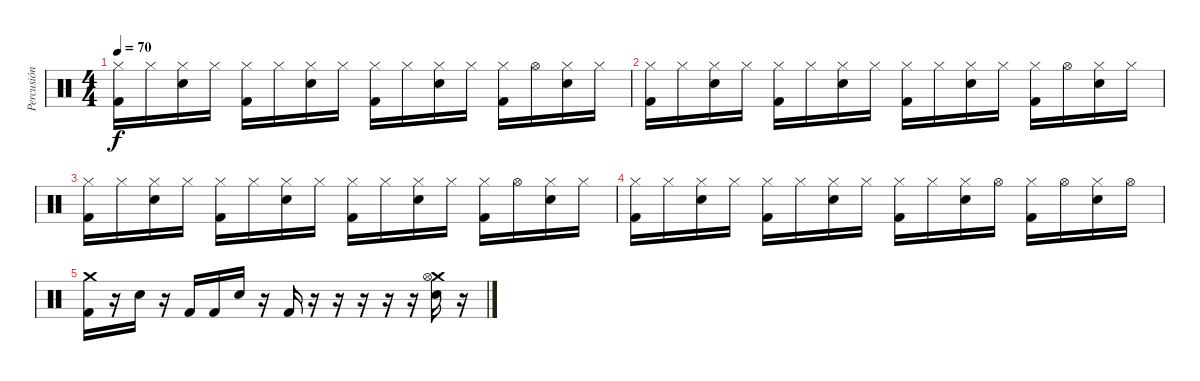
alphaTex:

\track ("Percusión" "Percusión") {instrument percussion}
\staff {score}
\articulation defaults
\ts (4 4)
\tempo 70
\clef neutral
\ks c
("Kick (hit) 2" "Hi-Hat (closed)").16{dy f} "Hi-Hat (closed)".16 ("Snare (hit) 2" "Hi-Hat (closed)").16 "Hi-Hat (closed)".16 ("Kick (hit) 2" "Hi-Hat (closed)").16 "Hi-Hat (closed)".16 ("Snare (hit) 2" "Hi-Hat (closed)").16 "Hi-Hat (closed)".16 ("Kick (hit) 2" "Hi-Hat (closed)").16 "Hi-Hat (closed)".16 ("Snare (hit) 2" "Hi-Hat (closed)").16 "Hi-Hat (closed)".16 ("Kick (hit) 2" "Hi-Hat (closed)").16 "Hi-Hat (open)".16 ("Snare (hit) 2" "Hi-Hat (closed)").16 "Hi-Hat (closed)".16 |
("Kick (hit) 2" "Hi-Hat (closed)").16 "Hi-Hat (closed)".16 ("Snare (hit) 2" "Hi-Hat (closed)").16 "Hi-Hat (closed)".16 ("Kick (hit) 2" "Hi-Hat (closed)").16 "Hi-Hat (closed)".16 ("Snare (hit) 2" "Hi-Hat (closed)").16 "Hi-Hat (closed)".16 ("Kick (hit) 2" "Hi-Hat (closed)").16 "Hi-Hat (closed)".16 ("Snare (hit) 2" "Hi-Hat (closed)").16 "Hi-Hat (closed)".16 ("Kick (hit) 2" "Hi-Hat (closed)").16 "Hi-Hat (open)".16 ("Snare (hit) 2" "Hi-Hat (closed)").16 "Hi-Hat (closed)".16 |
("Kick (hit) 2" "Hi-Hat (closed)").16 "Hi-Hat (closed)".16 ("Snare (hit) 2" "Hi-Hat (closed)").16 "Hi-Hat (closed)".16 ("Kick (hit) 2" "Hi-Hat (closed)").16 "Hi-Hat (closed)".16 ("Snare (hit) 2" "Hi-Hat (closed)").16 "Hi-Hat (closed)".16 ("Kick (hit) 2" "Hi-Hat (closed)").16 "Hi-Hat (closed)".16 ("Snare (hit) 2" "Hi-Hat (closed)").16 "Hi-Hat (closed)".16 ("Kick (hit) 2" "Hi-Hat (closed)").16 "Hi-Hat (open)".16 ("Snare (hit) 2" "Hi-Hat (closed)").16 "Hi-Hat (closed)".16 |
("Kick (hit) 2" "Hi-Hat (closed)").16 "Hi-Hat (closed)".16 ("Snare (hit) 2" "Hi-Hat (closed)").16 "Hi-Hat (closed)".16 ("Kick (hit) 2" "Hi-Hat (closed)").16 "Hi-Hat (closed)".16 ("Snare (hit) 2" "Hi-Hat (closed)").16 "Hi-Hat (closed)".16 ("Kick (hit) 2" "Hi-Hat (closed)").16 "Hi-Hat (closed)".16 ("Snare (hit) 2" "Hi-Hat (closed)").16 "Hi-Hat (open)".16 ("Kick (hit) 2" "Hi-Hat (closed)").16 "Hi-Hat (open)".16 ("Snare (hit) 2" "Hi-Hat (closed)").16 "Hi-Hat (open)".16 |
("Kick (hit) 2" "Crash medium (hit)").16 r.16 "Snare (hit) 2".16 r.16 "Kick (hit) 2".16 "Kick (hit) 2".16 "Snare (hit) 2".16 r.16 "Kick (hit) 2".16 r.16 r.16 r.16 r.16 r.16 ("Snare (hit) 2" "Crash medium (hit)" "Hi-Hat (open)").16 r.16
